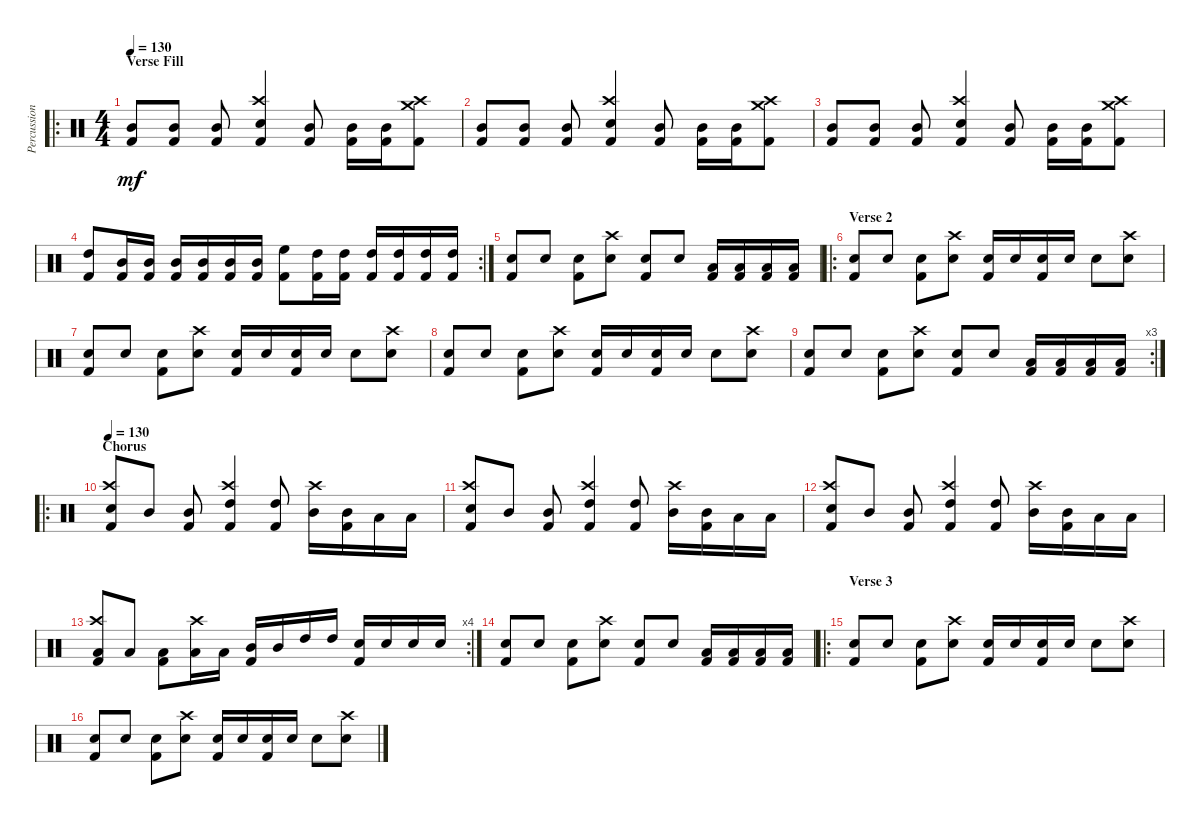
\track ("Percussion" "Percussion") {instrument percussion}
\staff {score}
\articulation defaults
\ro
\ts (4 4)
\section ("" "Verse Fill")
\tempo 130
\clef neutral
\ks c
("Mid Tom (hit)" "Kick (hit) 2").8{dy mf} ("Mid Tom (hit)" "Kick (hit) 2").8 ("Mid Tom (hit)" "Kick (hit) 2").8 ("Crash high (hit)" "Snare (hit) 2" "Kick (hit) 2").4 ("Mid Tom (hit)" "Kick (hit) 2").8 ("Mid Tom (hit)" "Kick (hit) 2").16 ("Mid Tom (hit)" "Kick (hit) 2").16 ("Crash high (hit)" "Crash medium (hit)" "Kick (hit) 2").8 |
("Mid Tom (hit)" "Kick (hit) 2").8 ("Mid Tom (hit)" "Kick (hit) 2").8 ("Mid Tom (hit)" "Kick (hit) 2").8 ("Crash high (hit)" "Snare (hit) 2" "Kick (hit) 2").4 ("Mid Tom (hit)" "Kick (hit) 2").8 ("Mid Tom (hit)" "Kick (hit) 2").16 ("Mid Tom (hit)" "Kick (hit) 2").16 ("Crash high (hit)" "Crash medium (hit)" "Kick (hit) 2").8 |
("Mid Tom (hit)" "Kick (hit) 2").8 ("Mid Tom (hit)" "Kick (hit) 2").8 ("Mid Tom (hit)" "Kick (hit) 2").8 ("Crash high (hit)" "Snare (hit) 2" "Kick (hit) 2").4 ("Mid Tom (hit)" "Kick (hit) 2").8 ("Mid Tom (hit)" "Kick (hit) 2").16 ("Mid Tom (hit)" "Kick (hit) 2").16 ("Crash high (hit)" "Crash medium (hit)" "Kick (hit) 2").8 |
\rc 2
("High Tom (hit)" "Kick (hit) 2").8 ("Mid Tom (hit)" "Kick (hit) 2").16 ("Mid Tom (hit)" "Kick (hit) 2").16 ("Mid Tom (hit)" "Kick (hit) 2").16 ("Mid Tom (hit)" "Kick (hit) 2").16 ("Mid Tom (hit)" "Kick (hit) 2").16 ("Mid Tom (hit)" "Kick (hit) 2").16 ("High Floor Tom (hit)" "Kick (hit) 2").8 ("High Tom (hit)" "Kick (hit) 2").16 ("High Tom (hit)" "Kick (hit) 2").16 ("High Tom (hit)" "Kick (hit) 2").16 ("High Tom (hit)" "Kick (hit) 2").16 ("High Tom (hit)" "Kick (hit) 2").16 ("High Tom (hit)" "Kick (hit) 2").16 |
("Snare (hit) 2" "Kick (hit) 2").8 "Snare (hit) 2".8 ("Snare (hit) 2" "Kick (hit) 2").8 ("Crash high (hit)" "Snare (hit) 2").8 ("Snare (hit) 2" "Kick (hit) 2").8 "Snare (hit) 2".8 ("Low Tom (hit)" "Kick (hit) 2").16 ("Low Tom (hit)" "Kick (hit) 2").16 ("Low Tom (hit)" "Kick (hit) 2").16 ("Low Tom (hit)" "Kick (hit) 2").16 |
\ro
\section ("" "Verse 2")
("Snare (hit) 2" "Kick (hit) 2").8 "Snare (hit) 2".8 ("Snare (hit) 2" "Kick (hit) 2").8 ("Crash high (hit)" "Snare (hit) 2").8 ("Snare (hit) 2" "Kick (hit) 2").16 "Snare (hit) 2".16 ("Snare (hit) 2" "Kick (hit) 2").16 "Snare (hit) 2".16 "Snare (hit) 2".8 ("Crash high (hit)" "Snare (hit) 2").8 |
("Snare (hit) 2" "Kick (hit) 2").8 "Snare (hit) 2".8 ("Snare (hit) 2" "Kick (hit) 2").8 ("Crash high (hit)" "Snare (hit) 2").8 ("Snare (hit) 2" "Kick (hit) 2").16 "Snare (hit) 2".16 ("Snare (hit) 2" "Kick (hit) 2").16 "Snare (hit) 2".16 "Snare (hit) 2".8 ("Crash high (hit)" "Snare (hit) 2").8 |
("Snare (hit) 2" "Kick (hit) 2").8 "Snare (hit) 2".8 ("Snare (hit) 2" "Kick (hit) 2").8 ("Crash high (hit)" "Snare (hit) 2").8 ("Snare (hit) 2" "Kick (hit) 2").16 "Snare (hit) 2".16 ("Snare (hit) 2" "Kick (hit) 2").16 "Snare (hit) 2".16 "Snare (hit) 2".8 ("Crash high (hit)" "Snare (hit) 2").8 |
\rc 3
("Snare (hit) 2" "Kick (hit) 2").8 "Snare (hit) 2".8 ("Snare (hit) 2" "Kick (hit) 2").8 ("Crash high (hit)" "Snare (hit) 2").8 ("Snare (hit) 2" "Kick (hit) 2").8 "Snare (hit) 2".8 ("Low Tom (hit)" "Kick (hit) 2").16 ("Low Tom (hit)" "Kick (hit) 2").16 ("Low Tom (hit)" "Kick (hit) 2").16 ("Low Tom (hit)" "Kick (hit) 2").16 |
\ro
\section ("" "Chorus")
\tempo 130
("Crash high (hit)" "Snare (hit) 2" "Kick (hit) 2").8 "Mid Tom (hit)".8 ("Mid Tom (hit)" "Kick (hit) 2").8 ("Crash high (hit)" "High Tom (hit)" "Kick (hit) 2").4 ("High Tom (hit)" "Kick (hit) 2").8 ("Crash high (hit)" "Mid Tom (hit)").16 ("Mid Tom (hit)" "Kick (hit) 2").16 "Low Tom (hit)".16 "Low Tom (hit)".16 |
("Crash high (hit)" "Snare (hit) 2" "Kick (hit) 2").8 "Mid Tom (hit)".8 ("Mid Tom (hit)" "Kick (hit) 2").8 ("Crash high (hit)" "High Tom (hit)" "Kick (hit) 2").4 ("High Tom (hit)" "Kick (hit) 2").8 ("Crash high (hit)" "Mid Tom (hit)").16 ("Mid Tom (hit)" "Kick (hit) 2").16 "Low Tom (hit)".16 "Low Tom (hit)".16 |
("Crash high (hit)" "Snare (hit) 2" "Kick (hit) 2").8 "Mid Tom (hit)".8 ("Mid Tom (hit)" "Kick (hit) 2").8 ("Crash high (hit)" "High Tom (hit)" "Kick (hit) 2").4 ("High Tom (hit)" "Kick (hit) 2").8 ("Crash high (hit)" "Mid Tom (hit)").16 ("Mid Tom (hit)" "Kick (hit) 2").16 "Low Tom (hit)".16 "Low Tom (hit)".16 |
\rc 4
("Crash high (hit)" "Low Tom (hit)" "Kick (hit) 2").8 "Low Tom (hit)".8 ("Low Tom (hit)" "Kick (hit) 2").8 ("Crash high (hit)" "Low Tom (hit)").16 "Low Tom (hit)".16 ("Mid Tom (hit)" "Kick (hit) 2").16 "Mid Tom (hit)".16 "High Tom (hit)".16 "High Tom (hit)".16 ("Snare (hit) 2" "Kick (hit) 2").16 "Snare (hit) 2".16 "Snare (hit) 2".16 "Snare (hit) 2".16 |
("Snare (hit) 2" "Kick (hit) 2").8 "Snare (hit) 2".8 ("Snare (hit) 2" "Kick (hit) 2").8 ("Crash high (hit)" "Snare (hit) 2").8 ("Snare (hit) 2" "Kick (hit) 2").8 "Snare (hit) 2".8 ("Low Tom (hit)" "Kick (hit) 2").16 ("Low Tom (hit)" "Kick (hit) 2").16 ("Low Tom (hit)" "Kick (hit) 2").16 ("Low Tom (hit)" "Kick (hit) 2").16 |
\ro
\section ("" "Verse 3")
("Snare (hit) 2" "Kick (hit) 2").8 "Snare (hit) 2".8 ("Snare (hit) 2" "Kick (hit) 2").8 ("Crash high (hit)" "Snare (hit) 2").8 ("Snare (hit) 2" "Kick (hit) 2").16 "Snare (hit) 2".16 ("Snare (hit) 2" "Kick (hit) 2").16 "Snare (hit) 2".16 "Snare (hit) 2".8 ("Crash high (hit)" "Snare (hit) 2").8 |
("Snare (hit) 2" "Kick (hit) 2").8 "Snare (hit) 2".8 ("Snare (hit) 2" "Kick (hit) 2").8 ("Crash high (hit)" "Snare (hit) 2").8 ("Snare (hit) 2" "Kick (hit) 2").16 "Snare (hit) 2".16 ("Snare (hit) 2" "Kick (hit) 2").16 "Snare (hit) 2".16 "Snare (hit) 2".8 ("Crash high (hit)" "Snare (hit) 2").8
